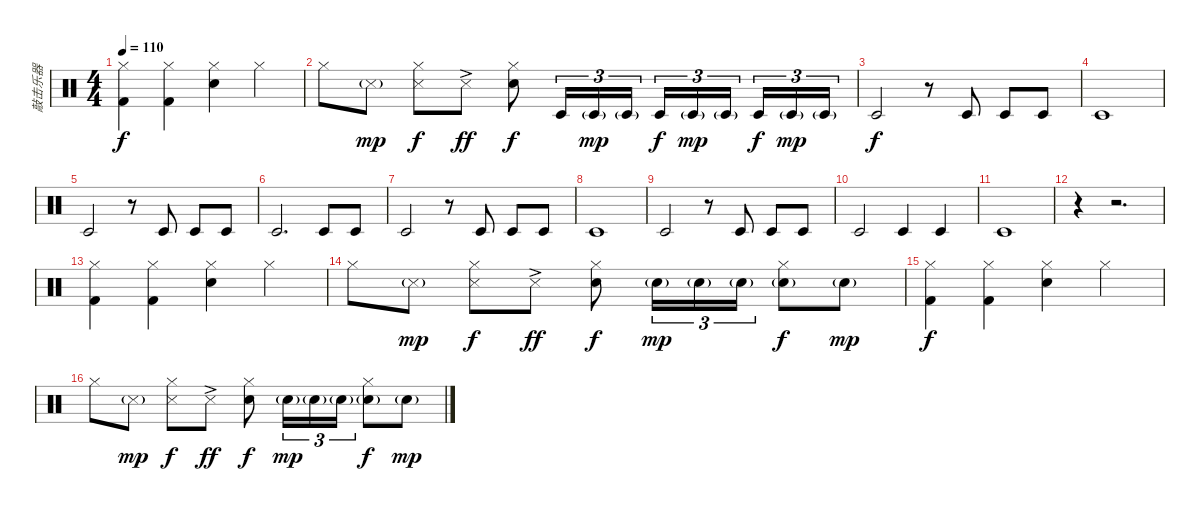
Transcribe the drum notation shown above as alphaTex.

\track ("敲击乐器" "敲击乐器") {instrument percussion}
\staff {score}
\articulation defaults
\ts (4 4)
\tempo 110
\clef neutral
\ks c
("Kick (hit) 2" "Hi-Hat (closed)").4{dy f} ("Kick (hit) 2" "Hi-Hat (closed)").4 ("Snare (hit) 2" "Hi-Hat (closed)").4 "Hi-Hat (closed)".4 |
"Hi-Hat (closed)".8 "Metronome (hit)"{g}.8{dy mp} ("Metronome (hit)" "Hi-Hat (closed)").8{dy f} "Metronome (hit)"{ac}.8{dy ff} ("Snare (hit) 2" "Hi-Hat (closed)").8{dy f} "Timbale low (hit)".16{tu (3 2)} "Timbale low (hit)"{g}.16{tu (3 2) dy mp} "Timbale low (hit)"{g}.16{tu (3 2)} "Timbale low (hit)".16{tu (3 2) dy f} "Timbale low (hit)"{g}.16{tu (3 2) dy mp} "Timbale low (hit)"{g}.16{tu (3 2)} "Timbale low (hit)".16{tu (3 2) dy f} "Timbale low (hit)"{g}.16{tu (3 2) dy mp} "Timbale low (hit)"{g}.16{tu (3 2)} |
"Timbale low (hit)".2{dy f} r.8 "Timbale low (hit)".8 "Timbale low (hit)".8 "Timbale low (hit)".8 |
"Timbale low (hit)".1 |
"Timbale low (hit)".2 r.8 "Timbale low (hit)".8 "Timbale low (hit)".8 "Timbale low (hit)".8 |
"Timbale low (hit)".2{d} "Timbale low (hit)".8 "Timbale low (hit)".8 |
"Timbale low (hit)".2 r.8 "Timbale low (hit)".8 "Timbale low (hit)".8 "Timbale low (hit)".8 |
"Timbale low (hit)".1 |
"Timbale low (hit)".2 r.8 "Timbale low (hit)".8 "Timbale low (hit)".8 "Timbale low (hit)".8 |
"Timbale low (hit)".2 "Timbale low (hit)".4 "Timbale low (hit)".4 |
"Timbale low (hit)".1 |
r.4 r.2{d} |
("Kick (hit) 2" "Hi-Hat (closed)").4 ("Kick (hit) 2" "Hi-Hat (closed)").4 ("Snare (hit) 2" "Hi-Hat (closed)").4 "Hi-Hat (closed)".4 |
"Hi-Hat (closed)".8 "Metronome (hit)"{g}.8{dy mp} ("Metronome (hit)" "Hi-Hat (closed)").8{dy f} "Metronome (hit)"{ac}.8{dy ff} ("Snare (hit) 2" "Hi-Hat (closed)").8{dy f} "Electric Snare (hit)"{g}.16{tu (3 2) dy mp} "Electric Snare (hit)"{g}.16{tu (3 2)} "Electric Snare (hit)"{g}.16{tu (3 2)} ("Electric Snare (hit)"{g} "Hi-Hat (closed)").8{dy f} "Electric Snare (hit)"{g}.8{dy mp} |
("Kick (hit) 2" "Hi-Hat (closed)").4{dy f} ("Kick (hit) 2" "Hi-Hat (closed)").4 ("Snare (hit) 2" "Hi-Hat (closed)").4 "Hi-Hat (closed)".4 |
"Hi-Hat (closed)".8 "Metronome (hit)"{g}.8{dy mp} ("Metronome (hit)" "Hi-Hat (closed)").8{dy f} "Metronome (hit)"{ac}.8{dy ff} ("Snare (hit) 2" "Hi-Hat (closed)").8{dy f} "Electric Snare (hit)"{g}.16{tu (3 2) dy mp} "Electric Snare (hit)"{g}.16{tu (3 2)} "Electric Snare (hit)"{g}.16{tu (3 2)} ("Electric Snare (hit)"{g} "Hi-Hat (closed)").8{dy f} "Electric Snare (hit)"{g}.8{dy mp}
